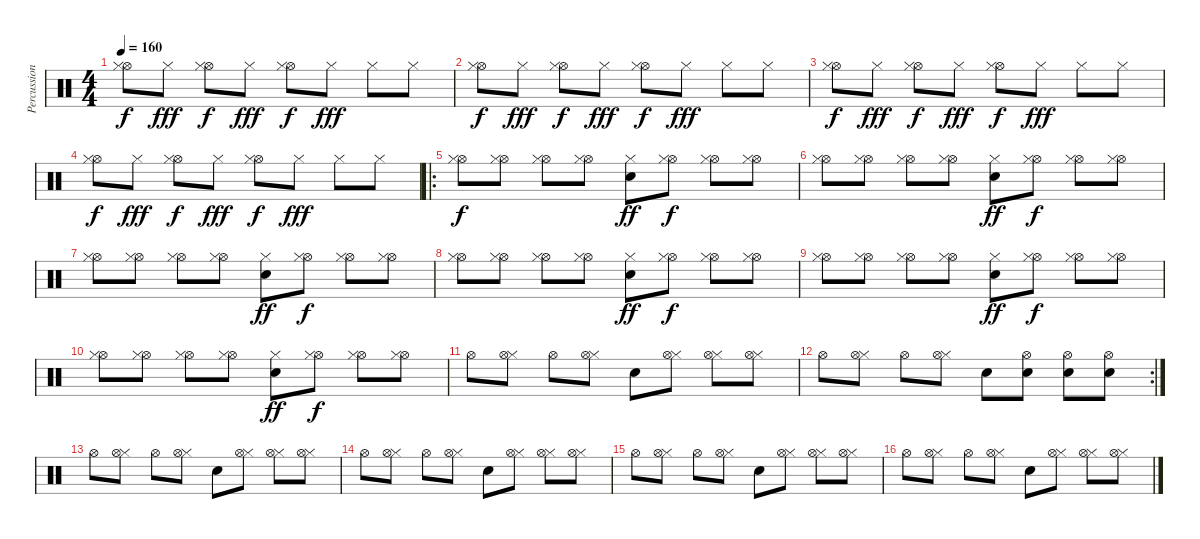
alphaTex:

\track ("Percussions" "Percussion") {instrument percussion}
\staff {score}
\articulation defaults
\ts (4 4)
\tempo 160
\clef neutral
\ks c
("Hi-Hat (open)" "Hi-Hat (closed)").8{dy f} "Hi-Hat (closed)".8{dy fff} ("Hi-Hat (open)" "Hi-Hat (closed)").8{dy f} "Hi-Hat (closed)".8{dy fff} ("Hi-Hat (open)" "Hi-Hat (closed)").8{dy f} "Hi-Hat (closed)".8{dy fff} "Hi-Hat (closed)".8 "Hi-Hat (closed)".8 |
("Hi-Hat (open)" "Hi-Hat (closed)").8{dy f} "Hi-Hat (closed)".8{dy fff} ("Hi-Hat (open)" "Hi-Hat (closed)").8{dy f} "Hi-Hat (closed)".8{dy fff} ("Hi-Hat (open)" "Hi-Hat (closed)").8{dy f} "Hi-Hat (closed)".8{dy fff} "Hi-Hat (closed)".8 "Hi-Hat (closed)".8 |
("Hi-Hat (open)" "Hi-Hat (closed)").8{dy f} "Hi-Hat (closed)".8{dy fff} ("Hi-Hat (open)" "Hi-Hat (closed)").8{dy f} "Hi-Hat (closed)".8{dy fff} ("Hi-Hat (open)" "Hi-Hat (closed)").8{dy f} "Hi-Hat (closed)".8{dy fff} "Hi-Hat (closed)".8 "Hi-Hat (closed)".8 |
("Hi-Hat (open)" "Hi-Hat (closed)").8{dy f} "Hi-Hat (closed)".8{dy fff} ("Hi-Hat (open)" "Hi-Hat (closed)").8{dy f} "Hi-Hat (closed)".8{dy fff} ("Hi-Hat (open)" "Hi-Hat (closed)").8{dy f} "Hi-Hat (closed)".8{dy fff} "Hi-Hat (closed)".8 "Hi-Hat (closed)".8 |
\ro
("Hi-Hat (open)" "Hi-Hat (closed)").8{dy f} ("Hi-Hat (open)" "Hi-Hat (closed)").8 ("Hi-Hat (open)" "Hi-Hat (closed)").8 ("Hi-Hat (open)" "Hi-Hat (closed)").8 ("Snare (hit) 2" "Hi-Hat (closed)").8{dy ff} ("Hi-Hat (open)" "Hi-Hat (closed)").8{dy f} ("Hi-Hat (open)" "Hi-Hat (closed)").8 ("Hi-Hat (open)" "Hi-Hat (closed)").8 |
("Hi-Hat (open)" "Hi-Hat (closed)").8 ("Hi-Hat (open)" "Hi-Hat (closed)").8 ("Hi-Hat (open)" "Hi-Hat (closed)").8 ("Hi-Hat (open)" "Hi-Hat (closed)").8 ("Snare (hit) 2" "Hi-Hat (closed)").8{dy ff} ("Hi-Hat (open)" "Hi-Hat (closed)").8{dy f} ("Hi-Hat (open)" "Hi-Hat (closed)").8 ("Hi-Hat (open)" "Hi-Hat (closed)").8 |
("Hi-Hat (open)" "Hi-Hat (closed)").8 ("Hi-Hat (open)" "Hi-Hat (closed)").8 ("Hi-Hat (open)" "Hi-Hat (closed)").8 ("Hi-Hat (open)" "Hi-Hat (closed)").8 ("Snare (hit) 2" "Hi-Hat (closed)").8{dy ff} ("Hi-Hat (open)" "Hi-Hat (closed)").8{dy f} ("Hi-Hat (open)" "Hi-Hat (closed)").8 ("Hi-Hat (open)" "Hi-Hat (closed)").8 |
("Hi-Hat (open)" "Hi-Hat (closed)").8 ("Hi-Hat (open)" "Hi-Hat (closed)").8 ("Hi-Hat (open)" "Hi-Hat (closed)").8 ("Hi-Hat (open)" "Hi-Hat (closed)").8 ("Snare (hit) 2" "Hi-Hat (closed)").8{dy ff} ("Hi-Hat (open)" "Hi-Hat (closed)").8{dy f} ("Hi-Hat (open)" "Hi-Hat (closed)").8 ("Hi-Hat (open)" "Hi-Hat (closed)").8 |
("Hi-Hat (open)" "Hi-Hat (closed)").8 ("Hi-Hat (open)" "Hi-Hat (closed)").8 ("Hi-Hat (open)" "Hi-Hat (closed)").8 ("Hi-Hat (open)" "Hi-Hat (closed)").8 ("Snare (hit) 2" "Hi-Hat (closed)").8{dy ff} ("Hi-Hat (open)" "Hi-Hat (closed)").8{dy f} ("Hi-Hat (open)" "Hi-Hat (closed)").8 ("Hi-Hat (open)" "Hi-Hat (closed)").8 |
("Hi-Hat (open)" "Hi-Hat (closed)").8 ("Hi-Hat (open)" "Hi-Hat (closed)").8 ("Hi-Hat (open)" "Hi-Hat (closed)").8 ("Hi-Hat (open)" "Hi-Hat (closed)").8 ("Snare (hit) 2" "Hi-Hat (closed)").8{dy ff} ("Hi-Hat (open)" "Hi-Hat (closed)").8{dy f} ("Hi-Hat (open)" "Hi-Hat (closed)").8 ("Hi-Hat (open)" "Hi-Hat (closed)").8 |
"Hi-Hat (open)".8 ("Hi-Hat (closed)" "Hi-Hat (open)").8 "Hi-Hat (open)".8 ("Hi-Hat (closed)" "Hi-Hat (open)").8 "Snare (hit) 2".8 ("Hi-Hat (closed)" "Hi-Hat (open)").8 ("Hi-Hat (closed)" "Hi-Hat (open)").8 ("Hi-Hat (closed)" "Hi-Hat (open)").8 |
\rc 2 "Hi-Hat (open)".8
("Hi-Hat (closed)" "Hi-Hat (open)").8 "Hi-Hat (open)".8 ("Hi-Hat (closed)" "Hi-Hat (open)").8 "Snare (hit) 2".8 ("Electric Snare (hit)" "Hi-Hat (open)").8 ("Electric Snare (hit)" "Hi-Hat (open)").8 ("Electric Snare (hit)" "Hi-Hat (open)").8 |
"Hi-Hat (open)".8 ("Hi-Hat (closed)" "Hi-Hat (open)").8 "Hi-Hat (open)".8 ("Hi-Hat (closed)" "Hi-Hat (open)").8 "Snare (hit) 2".8 ("Hi-Hat (closed)" "Hi-Hat (open)").8 ("Hi-Hat (closed)" "Hi-Hat (open)").8 ("Hi-Hat (closed)" "Hi-Hat (open)").8 |
"Hi-Hat (open)".8 ("Hi-Hat (closed)" "Hi-Hat (open)").8 "Hi-Hat (open)".8 ("Hi-Hat (closed)" "Hi-Hat (open)").8 "Snare (hit) 2".8 ("Hi-Hat (closed)" "Hi-Hat (open)").8 ("Hi-Hat (closed)" "Hi-Hat (open)").8 ("Hi-Hat (closed)" "Hi-Hat (open)").8 |
"Hi-Hat (open)".8 ("Hi-Hat (closed)" "Hi-Hat (open)").8 "Hi-Hat (open)".8 ("Hi-Hat (closed)" "Hi-Hat (open)").8 "Snare (hit) 2".8 ("Hi-Hat (closed)" "Hi-Hat (open)").8 ("Hi-Hat (closed)" "Hi-Hat (open)").8 ("Hi-Hat (closed)" "Hi-Hat (open)").8 |
"Hi-Hat (open)".8 ("Hi-Hat (closed)" "Hi-Hat (open)").8 "Hi-Hat (open)".8 ("Hi-Hat (closed)" "Hi-Hat (open)").8 "Snare (hit) 2".8 ("Hi-Hat (closed)" "Hi-Hat (open)").8 ("Hi-Hat (closed)" "Hi-Hat (open)").8 ("Hi-Hat (closed)" "Hi-Hat (open)").8
